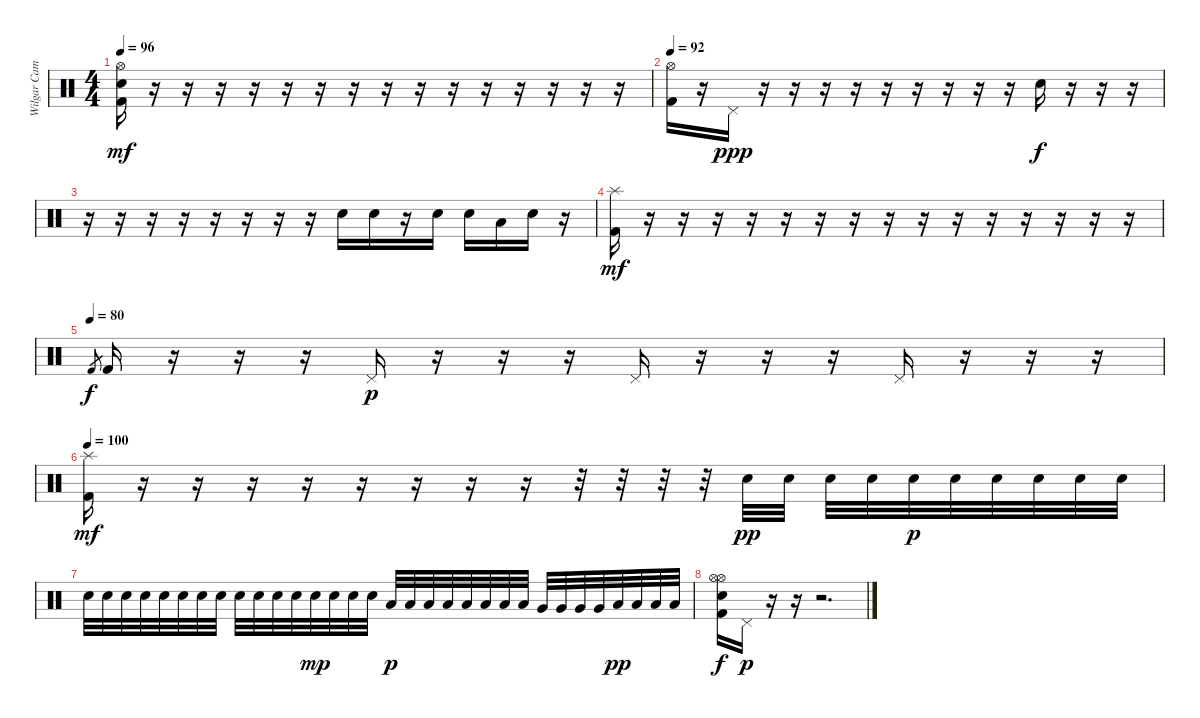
\track ("Wilgar Campbell" "Wilgar Cam") {instrument percussion}
\staff {score}
\articulation defaults
\ts (4 4)
\tempo 96
\clef neutral
\ks c
("Hi-Hat (open)" "Snare (hit) 2" "Kick (hit) 2").16{dy mf} r.16 r.16 r.16 r.16 r.16 r.16 r.16 r.16 r.16 r.16 r.16 r.16 r.16 r.16 r.16 |
\tempo 92
("Hi-Hat (open)" "Kick (hit) 2").16 r.16 "Pedal Hi-Hat (hit)".16{dy ppp} r.16 r.16 r.16 r.16 r.16 r.16 r.16 r.16 r.16 "Snare (hit) 2".16{dy f} r.16 r.16 r.16 |
r.16 r.16 r.16 r.16 r.16 r.16 r.16 r.16 "Snare (hit) 2".16 "Snare (hit) 2".16 r.16 "Snare (hit) 2".16 "Snare (hit) 2".16 "Low Tom (hit)".16 "Snare (hit) 2".16 r.16 |
("Splash (hit)" "Kick (hit) 2").16{dy mf} r.16 r.16 r.16 r.16 r.16 r.16 r.16 r.16 r.16 r.16 r.16 r.16 r.16 r.16 r.16 |
\tempo (80)
"Kick (hit) 2".8{gr dy f} "Kick (hit) 2".16 r.16 r.16 r.16 "Pedal Hi-Hat (hit)".16{dy p} r.16 r.16 r.16 "Pedal Hi-Hat (hit)".16 r.16 r.16 r.16 "Pedal Hi-Hat (hit)".16 r.16 r.16 r.16 |
\tempo 100
("Splash (hit)" "Kick (hit) 2").16{dy mf} r.16 r.16 r.16 r.16 r.16 r.16 r.16 r.16 r.32 r.32 r.32 r.32 "Snare (hit) 2".32{dy pp} "Snare (hit) 2".32 "Snare (hit) 2".32 "Snare (hit) 2".32 "Snare (hit) 2".32{dy p} "Snare (hit) 2".32 "Snare (hit) 2".32 "Snare (hit) 2".32 "Snare (hit) 2".32 "Snare (hit) 2".32 |
"Snare (hit) 2".32 "Snare (hit) 2".32 "Snare (hit) 2".32 "Snare (hit) 2".32 "Snare (hit) 2".32 "Snare (hit) 2".32 "Snare (hit) 2".32 "Snare (hit) 2".32 "Snare (hit) 2".32 "Snare (hit) 2".32 "Snare (hit) 2".32 "Snare (hit) 2".32 "Snare (hit) 2".32{dy mp} "Snare (hit) 2".32 "Snare (hit) 2".32 "Snare (hit) 2".32 "Low Tom (hit)".32{dy p} "Low Tom (hit)".32 "Low Tom (hit)".32 "Low Tom (hit)".32 "Low Tom (hit)".32 "Low Tom (hit)".32 "Low Tom (hit)".32 "Low Tom (hit)".32 "Very Low Tom (hit)".32 "Very Low Tom (hit)".32 "Very Low Tom (hit)".32 "Very Low Tom (hit)".32 "Low Floor Tom (hit)".32{dy pp} "Low Floor Tom (hit)".32 "Low Floor Tom (hit)".32 "Low Floor Tom (hit)".32 |
("Hi-Hat (open)" "Hi-Hat (open)" "Snare (hit) 2" "Kick (hit) 2").16{dy f} "Pedal Hi-Hat (hit)".16{dy p} r.16 r.16 r.2{d}
